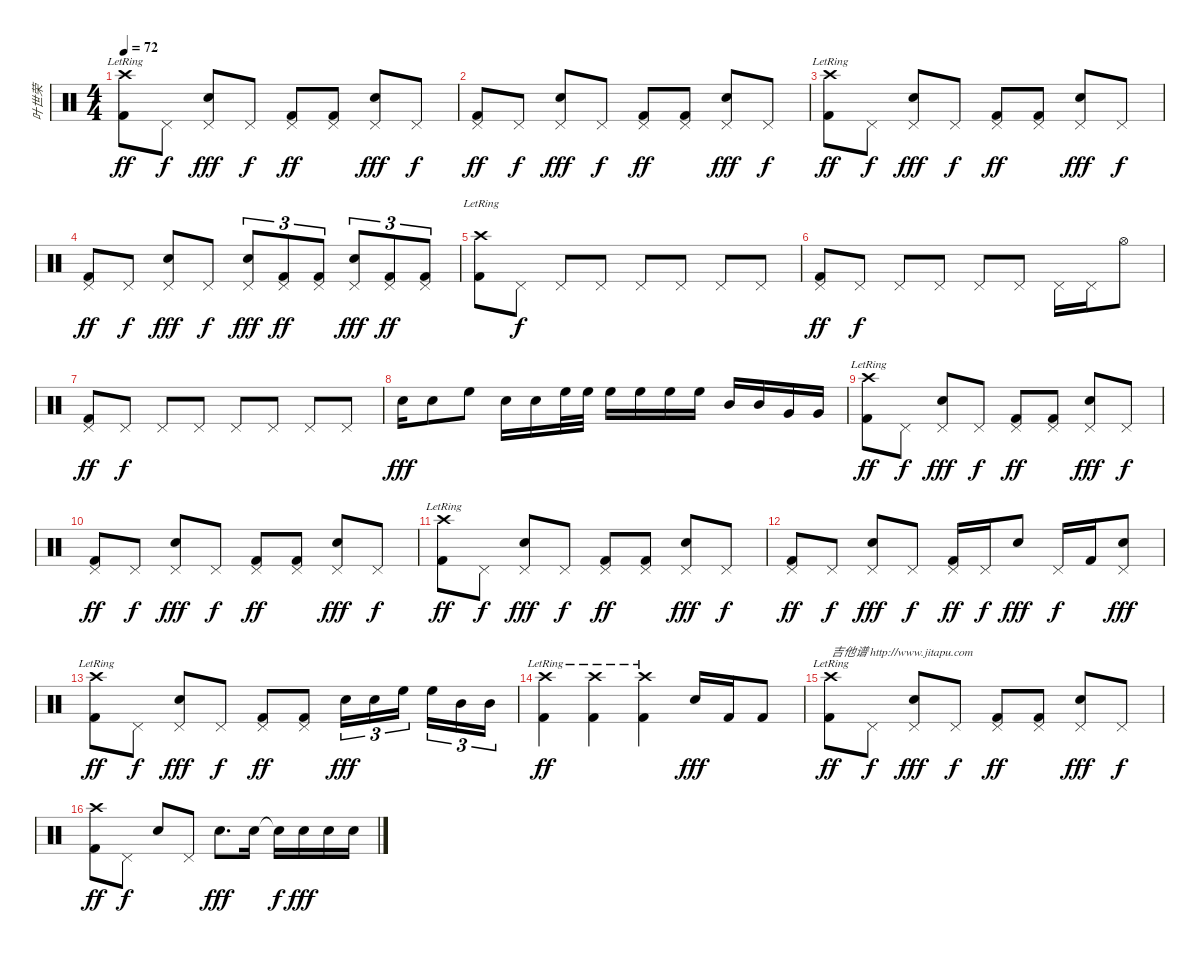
\track ("叶世荣" "叶世荣") {instrument percussion}
\staff {score}
\articulation defaults
\ts (4 4)
\tempo 72
\clef neutral
\ks c
("Crash high (hit)"{lr} "Kick (hit) 2").8{dy ff} "Pedal Hi-Hat (hit)".8{dy f} ("Pedal Hi-Hat (hit)" "Electric Snare (hit)").8{dy fff} "Pedal Hi-Hat (hit)".8{dy f} ("Pedal Hi-Hat (hit)" "Kick (hit) 2").8{dy ff} ("Pedal Hi-Hat (hit)" "Kick (hit) 2").8 ("Pedal Hi-Hat (hit)" "Electric Snare (hit)").8{dy fff} "Pedal Hi-Hat (hit)".8{dy f} |
("Pedal Hi-Hat (hit)" "Kick (hit) 2").8{dy ff} "Pedal Hi-Hat (hit)".8{dy f} ("Pedal Hi-Hat (hit)" "Electric Snare (hit)").8{dy fff} "Pedal Hi-Hat (hit)".8{dy f} ("Pedal Hi-Hat (hit)" "Kick (hit) 2").8{dy ff} ("Pedal Hi-Hat (hit)" "Kick (hit) 2").8 ("Pedal Hi-Hat (hit)" "Electric Snare (hit)").8{dy fff} "Pedal Hi-Hat (hit)".8{dy f} |
("Crash high (hit)"{lr} "Kick (hit) 2").8{dy ff} "Pedal Hi-Hat (hit)".8{dy f} ("Pedal Hi-Hat (hit)" "Electric Snare (hit)").8{dy fff} "Pedal Hi-Hat (hit)".8{dy f} ("Pedal Hi-Hat (hit)" "Kick (hit) 2").8{dy ff} ("Pedal Hi-Hat (hit)" "Kick (hit) 2").8 ("Pedal Hi-Hat (hit)" "Electric Snare (hit)").8{dy fff} "Pedal Hi-Hat (hit)".8{dy f} |
("Pedal Hi-Hat (hit)" "Kick (hit) 2").8{dy ff} "Pedal Hi-Hat (hit)".8{dy f} ("Pedal Hi-Hat (hit)" "Electric Snare (hit)").8{dy fff} "Pedal Hi-Hat (hit)".8{dy f} ("Pedal Hi-Hat (hit)" "Electric Snare (hit)").8{tu (3 2) dy fff} ("Pedal Hi-Hat (hit)" "Kick (hit) 2").8{tu (3 2) dy ff} ("Pedal Hi-Hat (hit)" "Kick (hit) 2").8{tu (3 2)} ("Pedal Hi-Hat (hit)" "Electric Snare (hit)").8{tu (3 2) dy fff} ("Pedal Hi-Hat (hit)" "Kick (hit) 2").8{tu (3 2) dy ff} ("Pedal Hi-Hat (hit)" "Kick (hit) 2").8{tu (3 2)} |
("Crash high (hit)"{lr} "Kick (hit) 2").8 "Pedal Hi-Hat (hit)".8{dy f} "Pedal Hi-Hat (hit)".8 "Pedal Hi-Hat (hit)".8 "Pedal Hi-Hat (hit)".8 "Pedal Hi-Hat (hit)".8 "Pedal Hi-Hat (hit)".8 "Pedal Hi-Hat (hit)".8 |
("Pedal Hi-Hat (hit)" "Kick (hit) 2").8{dy ff} "Pedal Hi-Hat (hit)".8{dy f} "Pedal Hi-Hat (hit)".8 "Pedal Hi-Hat (hit)".8 "Pedal Hi-Hat (hit)".8 "Pedal Hi-Hat (hit)".8 "Pedal Hi-Hat (hit)".16 "Pedal Hi-Hat (hit)".16 "Hi-Hat (open)".8 |
("Pedal Hi-Hat (hit)" "Kick (hit) 2").8{dy ff} "Pedal Hi-Hat (hit)".8{dy f} "Pedal Hi-Hat (hit)".8 "Pedal Hi-Hat (hit)".8 "Pedal Hi-Hat (hit)".8 "Pedal Hi-Hat (hit)".8 "Pedal Hi-Hat (hit)".8 "Pedal Hi-Hat (hit)".8 |
"Electric Snare (hit)".16{dy fff} "Electric Snare (hit)".8 "High Floor Tom (hit)".8 "Electric Snare (hit)".16 "Electric Snare (hit)".16 "High Floor Tom (hit)".32 "High Floor Tom (hit)".32 "High Floor Tom (hit)".16 "High Floor Tom (hit)".16 "High Floor Tom (hit)".16 "High Floor Tom (hit)".16 "Mid Tom (hit)".16 "Mid Tom (hit)".16 "Very Low Tom (hit)".16 "Very Low Tom (hit)".16 |
("Crash high (hit)"{lr} "Kick (hit) 2").8{dy ff} "Pedal Hi-Hat (hit)".8{dy f} ("Pedal Hi-Hat (hit)" "Electric Snare (hit)").8{dy fff} "Pedal Hi-Hat (hit)".8{dy f} ("Pedal Hi-Hat (hit)" "Kick (hit) 2").8{dy ff} ("Pedal Hi-Hat (hit)" "Kick (hit) 2").8 ("Pedal Hi-Hat (hit)" "Electric Snare (hit)").8{dy fff} "Pedal Hi-Hat (hit)".8{dy f} |
("Pedal Hi-Hat (hit)" "Kick (hit) 2").8{dy ff} "Pedal Hi-Hat (hit)".8{dy f} ("Pedal Hi-Hat (hit)" "Electric Snare (hit)").8{dy fff} "Pedal Hi-Hat (hit)".8{dy f} ("Pedal Hi-Hat (hit)" "Kick (hit) 2").8{dy ff} ("Pedal Hi-Hat (hit)" "Kick (hit) 2").8 ("Pedal Hi-Hat (hit)" "Electric Snare (hit)").8{dy fff} "Pedal Hi-Hat (hit)".8{dy f} |
("Crash high (hit)"{lr} "Kick (hit) 2").8{dy ff} "Pedal Hi-Hat (hit)".8{dy f} ("Pedal Hi-Hat (hit)" "Electric Snare (hit)").8{dy fff} "Pedal Hi-Hat (hit)".8{dy f} ("Pedal Hi-Hat (hit)" "Kick (hit) 2").8{dy ff} ("Pedal Hi-Hat (hit)" "Kick (hit) 2").8 ("Pedal Hi-Hat (hit)" "Electric Snare (hit)").8{dy fff} "Pedal Hi-Hat (hit)".8{dy f} |
("Pedal Hi-Hat (hit)" "Kick (hit) 2").8{dy ff} "Pedal Hi-Hat (hit)".8{dy f} ("Pedal Hi-Hat (hit)" "Electric Snare (hit)").8{dy fff} "Pedal Hi-Hat (hit)".8{dy f} ("Pedal Hi-Hat (hit)" "Kick (hit) 2").16{dy ff} "Pedal Hi-Hat (hit)".16{dy f} "Electric Snare (hit)".8{dy fff} "Pedal Hi-Hat (hit)".16{dy f} "Kick (hit) 2".16 ("Pedal Hi-Hat (hit)" "Electric Snare (hit)").8{dy fff} |
("Crash high (hit)"{lr} "Kick (hit) 2").8{dy ff} "Pedal Hi-Hat (hit)".8{dy f} ("Pedal Hi-Hat (hit)" "Electric Snare (hit)").8{dy fff} "Pedal Hi-Hat (hit)".8{dy f} ("Pedal Hi-Hat (hit)" "Kick (hit) 2").8{dy ff} ("Pedal Hi-Hat (hit)" "Kick (hit) 2").8 "Electric Snare (hit)".16{tu (3 2) dy fff} "Electric Snare (hit)".16{tu (3 2)} "High Floor Tom (hit)".16{tu (3 2) beam splitsecondary} "High Floor Tom (hit)".16{tu (3 2)} "Mid Tom (hit)".16{tu (3 2)} "Mid Tom (hit)".16{tu (3 2)} |
("Crash high (hit)"{lr} "Kick (hit) 2").4{dy ff} ("Crash high (hit)"{lr} "Kick (hit) 2").4 ("Crash high (hit)"{lr} "Kick (hit) 2").4 "Electric Snare (hit)".16{dy fff} "Kick (hit) 2".16 "Kick (hit) 2".8 |
("Crash high (hit)"{lr} "Kick (hit) 2").8{txt "吉他谱 http://www.jitapu.com" dy ff} "Pedal Hi-Hat (hit)".8{dy f} ("Pedal Hi-Hat (hit)" "Electric Snare (hit)").8{dy fff} "Pedal Hi-Hat (hit)".8{dy f} ("Pedal Hi-Hat (hit)" "Kick (hit) 2").8{dy ff} ("Pedal Hi-Hat (hit)" "Kick (hit) 2").8 ("Pedal Hi-Hat (hit)" "Electric Snare (hit)").8{dy fff} "Pedal Hi-Hat (hit)".8{dy f} |
("Crash high (hit)" "Kick (hit) 2").8{dy ff} "Pedal Hi-Hat (hit)".8{dy f} "Electric Snare (hit)".8 "Pedal Hi-Hat (hit)".8 "Electric Snare (hit)".8{d dy fff} "Electric Snare (hit)".16 "Snare (hit)"{t}.16{dy f} "Electric Snare (hit)".16{dy fff} "Electric Snare (hit)".16 "Electric Snare (hit)".16
